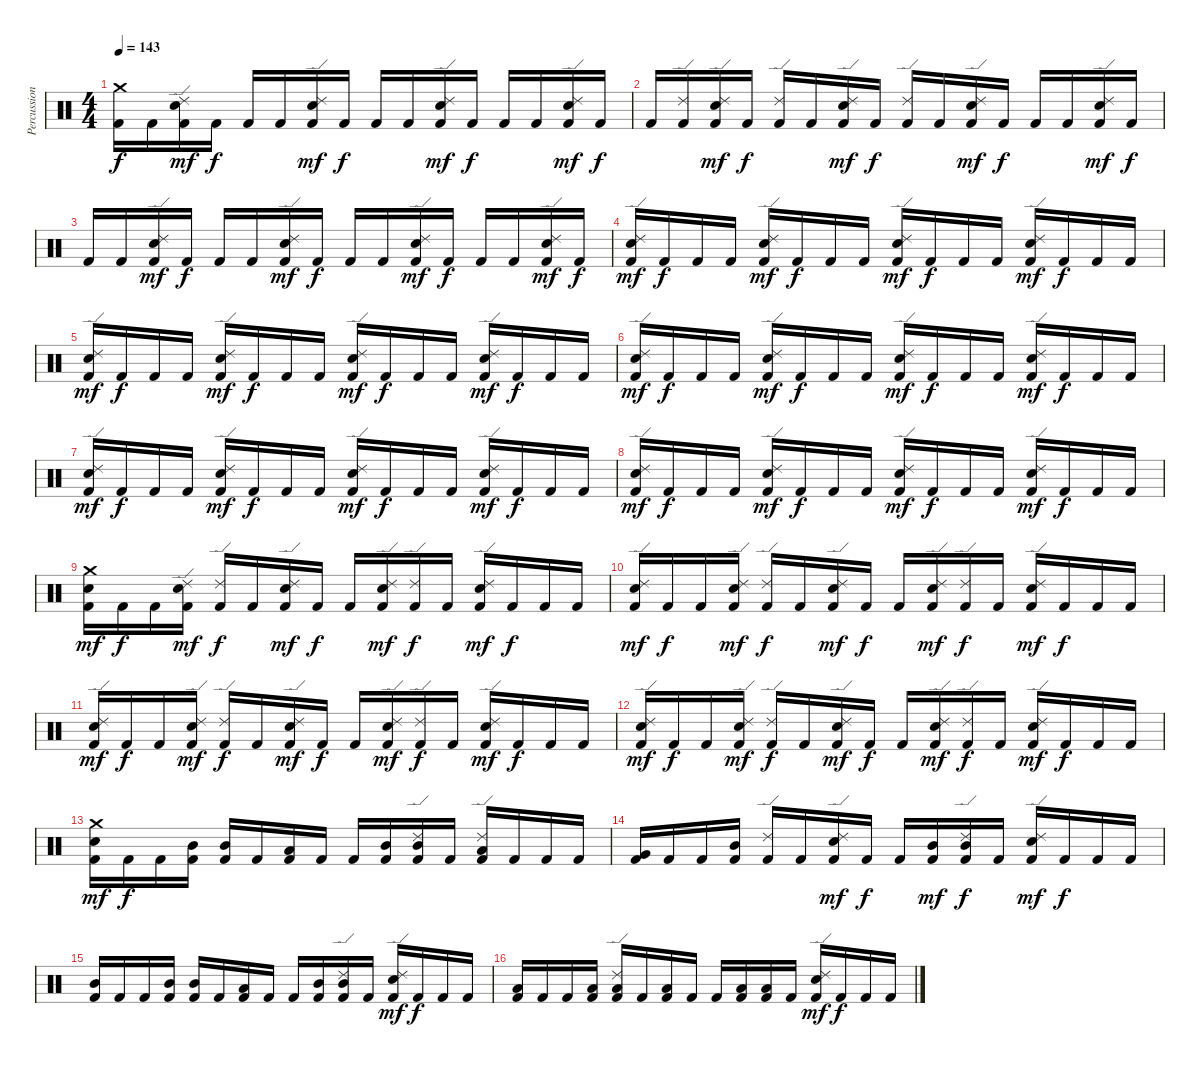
\track ("Percussion" "Percussion") {instrument percussion}
\staff {score}
\articulation defaults
\ts (4 4)
\tempo 143
\clef neutral
\ks c
("Crash medium (hit)" "Kick (hit) 2").16{dy f} "Kick (hit) 2".16 ("Ride (edge) 2" "Electric Snare (hit)" "Kick (hit) 2").16{dy mf} "Kick (hit) 2".16{dy f} "Kick (hit) 2".16 "Kick (hit) 2".16 ("Ride (edge) 2" "Electric Snare (hit)" "Kick (hit) 2").16{dy mf} "Kick (hit) 2".16{dy f} "Kick (hit) 2".16 "Kick (hit) 2".16 ("Ride (edge) 2" "Electric Snare (hit)" "Kick (hit) 2").16{dy mf} "Kick (hit) 2".16{dy f} "Kick (hit) 2".16 "Kick (hit) 2".16 ("Ride (edge) 2" "Electric Snare (hit)" "Kick (hit) 2").16{dy mf} "Kick (hit) 2".16{dy f} |
"Kick (hit) 2".16 ("Ride (edge) 2" "Kick (hit) 2").16 ("Ride (edge) 2" "Electric Snare (hit)" "Kick (hit) 2").16{dy mf} "Kick (hit) 2".16{dy f} ("Ride (edge) 2" "Kick (hit) 2").16 "Kick (hit) 2".16 ("Ride (edge) 2" "Electric Snare (hit)" "Kick (hit) 2").16{dy mf} "Kick (hit) 2".16{dy f} ("Ride (edge) 2" "Kick (hit) 2").16 "Kick (hit) 2".16 ("Ride (edge) 2" "Electric Snare (hit)" "Kick (hit) 2").16{dy mf} "Kick (hit) 2".16{dy f} "Kick (hit) 2".16 "Kick (hit) 2".16 ("Ride (edge) 2" "Electric Snare (hit)" "Kick (hit) 2").16{dy mf} "Kick (hit) 2".16{dy f} |
"Kick (hit) 2".16 "Kick (hit) 2".16 ("Ride (edge) 2" "Electric Snare (hit)" "Kick (hit) 2").16{dy mf} "Kick (hit) 2".16{dy f} "Kick (hit) 2".16 "Kick (hit) 2".16 ("Ride (edge) 2" "Electric Snare (hit)" "Kick (hit) 2").16{dy mf} "Kick (hit) 2".16{dy f} "Kick (hit) 2".16 "Kick (hit) 2".16 ("Ride (edge) 2" "Electric Snare (hit)" "Kick (hit) 2").16{dy mf} "Kick (hit) 2".16{dy f} "Kick (hit) 2".16 "Kick (hit) 2".16 ("Ride (edge) 2" "Electric Snare (hit)" "Kick (hit) 2").16{dy mf} "Kick (hit) 2".16{dy f} |
("Ride (edge) 2" "Electric Snare (hit)" "Kick (hit) 2").16{dy mf} "Kick (hit) 2".16{dy f} "Kick (hit) 2".16 "Kick (hit) 2".16 ("Ride (edge) 2" "Electric Snare (hit)" "Kick (hit) 2").16{dy mf} "Kick (hit) 2".16{dy f} "Kick (hit) 2".16 "Kick (hit) 2".16 ("Ride (edge) 2" "Electric Snare (hit)" "Kick (hit) 2").16{dy mf} "Kick (hit) 2".16{dy f} "Kick (hit) 2".16 "Kick (hit) 2".16 ("Ride (edge) 2" "Electric Snare (hit)" "Kick (hit) 2").16{dy mf} "Kick (hit) 2".16{dy f} "Kick (hit) 2".16 "Kick (hit) 2".16 |
("Ride (edge) 2" "Electric Snare (hit)" "Kick (hit) 2").16{dy mf} "Kick (hit) 2".16{dy f} "Kick (hit) 2".16 "Kick (hit) 2".16 ("Ride (edge) 2" "Electric Snare (hit)" "Kick (hit) 2").16{dy mf} "Kick (hit) 2".16{dy f} "Kick (hit) 2".16 "Kick (hit) 2".16 ("Ride (edge) 2" "Electric Snare (hit)" "Kick (hit) 2").16{dy mf} "Kick (hit) 2".16{dy f} "Kick (hit) 2".16 "Kick (hit) 2".16 ("Ride (edge) 2" "Electric Snare (hit)" "Kick (hit) 2").16{dy mf} "Kick (hit) 2".16{dy f} "Kick (hit) 2".16 "Kick (hit) 2".16 |
("Ride (edge) 2" "Electric Snare (hit)" "Kick (hit) 2").16{dy mf} "Kick (hit) 2".16{dy f} "Kick (hit) 2".16 "Kick (hit) 2".16 ("Ride (edge) 2" "Electric Snare (hit)" "Kick (hit) 2").16{dy mf} "Kick (hit) 2".16{dy f} "Kick (hit) 2".16 "Kick (hit) 2".16 ("Ride (edge) 2" "Electric Snare (hit)" "Kick (hit) 2").16{dy mf} "Kick (hit) 2".16{dy f} "Kick (hit) 2".16 "Kick (hit) 2".16 ("Ride (edge) 2" "Electric Snare (hit)" "Kick (hit) 2").16{dy mf} "Kick (hit) 2".16{dy f} "Kick (hit) 2".16 "Kick (hit) 2".16 |
("Ride (edge) 2" "Electric Snare (hit)" "Kick (hit) 2").16{dy mf} "Kick (hit) 2".16{dy f} "Kick (hit) 2".16 "Kick (hit) 2".16 ("Ride (edge) 2" "Electric Snare (hit)" "Kick (hit) 2").16{dy mf} "Kick (hit) 2".16{dy f} "Kick (hit) 2".16 "Kick (hit) 2".16 ("Ride (edge) 2" "Electric Snare (hit)" "Kick (hit) 2").16{dy mf} "Kick (hit) 2".16{dy f} "Kick (hit) 2".16 "Kick (hit) 2".16 ("Ride (edge) 2" "Electric Snare (hit)" "Kick (hit) 2").16{dy mf} "Kick (hit) 2".16{dy f} "Kick (hit) 2".16 "Kick (hit) 2".16 |
("Ride (edge) 2" "Electric Snare (hit)" "Kick (hit) 2").16{dy mf} "Kick (hit) 2".16{dy f} "Kick (hit) 2".16 "Kick (hit) 2".16 ("Ride (edge) 2" "Electric Snare (hit)" "Kick (hit) 2").16{dy mf} "Kick (hit) 2".16{dy f} "Kick (hit) 2".16 "Kick (hit) 2".16 ("Ride (edge) 2" "Electric Snare (hit)" "Kick (hit) 2").16{dy mf} "Kick (hit) 2".16{dy f} "Kick (hit) 2".16 "Kick (hit) 2".16 ("Ride (edge) 2" "Electric Snare (hit)" "Kick (hit) 2").16{dy mf} "Kick (hit) 2".16{dy f} "Kick (hit) 2".16 "Kick (hit) 2".16 |
("Crash medium (hit)" "Electric Snare (hit)" "Kick (hit) 2").16{dy mf} "Kick (hit) 2".16{dy f} "Kick (hit) 2".16 ("Ride (edge) 2" "Electric Snare (hit)" "Kick (hit) 2").16{dy mf} ("Ride (edge) 2" "Kick (hit) 2").16{dy f} "Kick (hit) 2".16 ("Ride (edge) 2" "Electric Snare (hit)" "Kick (hit) 2").16{dy mf} "Kick (hit) 2".16{dy f} "Kick (hit) 2".16 ("Ride (edge) 2" "Electric Snare (hit)" "Kick (hit) 2").16{dy mf} ("Ride (edge) 2" "Kick (hit) 2").16{dy f} "Kick (hit) 2".16 ("Ride (edge) 2" "Electric Snare (hit)" "Kick (hit) 2").16{dy mf} "Kick (hit) 2".16{dy f} "Kick (hit) 2".16 "Kick (hit) 2".16 |
("Ride (edge) 2" "Electric Snare (hit)" "Kick (hit) 2").16{dy mf} "Kick (hit) 2".16{dy f} "Kick (hit) 2".16 ("Ride (edge) 2" "Electric Snare (hit)" "Kick (hit) 2").16{dy mf} ("Ride (edge) 2" "Kick (hit) 2").16{dy f} "Kick (hit) 2".16 ("Ride (edge) 2" "Electric Snare (hit)" "Kick (hit) 2").16{dy mf} "Kick (hit) 2".16{dy f} "Kick (hit) 2".16 ("Ride (edge) 2" "Electric Snare (hit)" "Kick (hit) 2").16{dy mf} ("Ride (edge) 2" "Kick (hit) 2").16{dy f} "Kick (hit) 2".16 ("Ride (edge) 2" "Electric Snare (hit)" "Kick (hit) 2").16{dy mf} "Kick (hit) 2".16{dy f} "Kick (hit) 2".16 "Kick (hit) 2".16 |
("Ride (edge) 2" "Electric Snare (hit)" "Kick (hit) 2").16{dy mf} "Kick (hit) 2".16{dy f} "Kick (hit) 2".16 ("Ride (edge) 2" "Electric Snare (hit)" "Kick (hit) 2").16{dy mf} ("Ride (edge) 2" "Kick (hit) 2").16{dy f} "Kick (hit) 2".16 ("Ride (edge) 2" "Electric Snare (hit)" "Kick (hit) 2").16{dy mf} "Kick (hit) 2".16{dy f} "Kick (hit) 2".16 ("Ride (edge) 2" "Electric Snare (hit)" "Kick (hit) 2").16{dy mf} ("Ride (edge) 2" "Kick (hit) 2").16{dy f} "Kick (hit) 2".16 ("Ride (edge) 2" "Electric Snare (hit)" "Kick (hit) 2").16{dy mf} "Kick (hit) 2".16{dy f} "Kick (hit) 2".16 "Kick (hit) 2".16 |
("Ride (edge) 2" "Electric Snare (hit)" "Kick (hit) 2").16{dy mf} "Kick (hit) 2".16{dy f} "Kick (hit) 2".16 ("Ride (edge) 2" "Electric Snare (hit)" "Kick (hit) 2").16{dy mf} ("Ride (edge) 2" "Kick (hit) 2").16{dy f} "Kick (hit) 2".16 ("Ride (edge) 2" "Electric Snare (hit)" "Kick (hit) 2").16{dy mf} "Kick (hit) 2".16{dy f} "Kick (hit) 2".16 ("Ride (edge) 2" "Electric Snare (hit)" "Kick (hit) 2").16{dy mf} ("Ride (edge) 2" "Kick (hit) 2").16{dy f} "Kick (hit) 2".16 ("Ride (edge) 2" "Electric Snare (hit)" "Kick (hit) 2").16{dy mf} "Kick (hit) 2".16{dy f} "Kick (hit) 2".16 "Kick (hit) 2".16 |
("Crash medium (hit)" "Electric Snare (hit)" "Kick (hit) 2").16{dy mf} "Kick (hit) 2".16{dy f} "Kick (hit) 2".16 ("Mid Tom (hit)" "Kick (hit) 2").16 ("Mid Tom (hit)" "Kick (hit) 2").16 "Kick (hit) 2".16 ("Low Tom (hit)" "Kick (hit) 2").16 "Kick (hit) 2".16 "Kick (hit) 2".16 ("Mid Tom (hit)" "Kick (hit) 2").16 ("Ride (edge) 2" "Mid Tom (hit)" "Kick (hit) 2").16 "Kick (hit) 2".16 ("Ride (edge) 2" "Low Tom (hit)" "Kick (hit) 2").16 "Kick (hit) 2".16 "Kick (hit) 2".16 "Kick (hit) 2".16 |
("Very Low Tom (hit)" "Kick (hit) 2").16 "Kick (hit) 2".16 "Kick (hit) 2".16 ("Mid Tom (hit)" "Kick (hit) 2").16 ("Ride (edge) 2" "Kick (hit) 2").16 "Kick (hit) 2".16 ("Ride (edge) 2" "Electric Snare (hit)" "Kick (hit) 2").16{dy mf} "Kick (hit) 2".16{dy f} "Kick (hit) 2".16 ("Mid Tom (hit)" "Kick (hit) 2").16{dy mf} ("Ride (edge) 2" "Mid Tom (hit)" "Kick (hit) 2").16{dy f} "Kick (hit) 2".16 ("Ride (edge) 2" "Electric Snare (hit)" "Kick (hit) 2").16{dy mf} "Kick (hit) 2".16{dy f} "Kick (hit) 2".16 "Kick (hit) 2".16 |
("Mid Tom (hit)" "Kick (hit) 2").16 "Kick (hit) 2".16 "Kick (hit) 2".16 ("Mid Tom (hit)" "Kick (hit) 2").16 ("Mid Tom (hit)" "Kick (hit) 2").16 "Kick (hit) 2".16 ("Low Tom (hit)" "Kick (hit) 2").16 "Kick (hit) 2".16 "Kick (hit) 2".16 ("Mid Tom (hit)" "Kick (hit) 2").16 ("Ride (edge) 2" "Mid Tom (hit)" "Kick (hit) 2").16 "Kick (hit) 2".16 ("Ride (edge) 2" "Electric Snare (hit)" "Kick (hit) 2").16{dy mf} "Kick (hit) 2".16{dy f} "Kick (hit) 2".16 "Kick (hit) 2".16 |
("Low Tom (hit)" "Kick (hit) 2").16 "Kick (hit) 2".16 "Kick (hit) 2".16 ("Low Tom (hit)" "Kick (hit) 2").16 ("Ride (edge) 2" "Low Tom (hit)" "Kick (hit) 2").16 "Kick (hit) 2".16 ("Low Tom (hit)" "Kick (hit) 2").16 "Kick (hit) 2".16 "Kick (hit) 2".16 ("Low Tom (hit)" "Kick (hit) 2").16 ("Low Tom (hit)" "Kick (hit) 2").16 "Kick (hit) 2".16 ("Ride (edge) 2" "Electric Snare (hit)" "Kick (hit) 2").16{dy mf} "Kick (hit) 2".16{dy f} "Kick (hit) 2".16 "Kick (hit) 2".16
